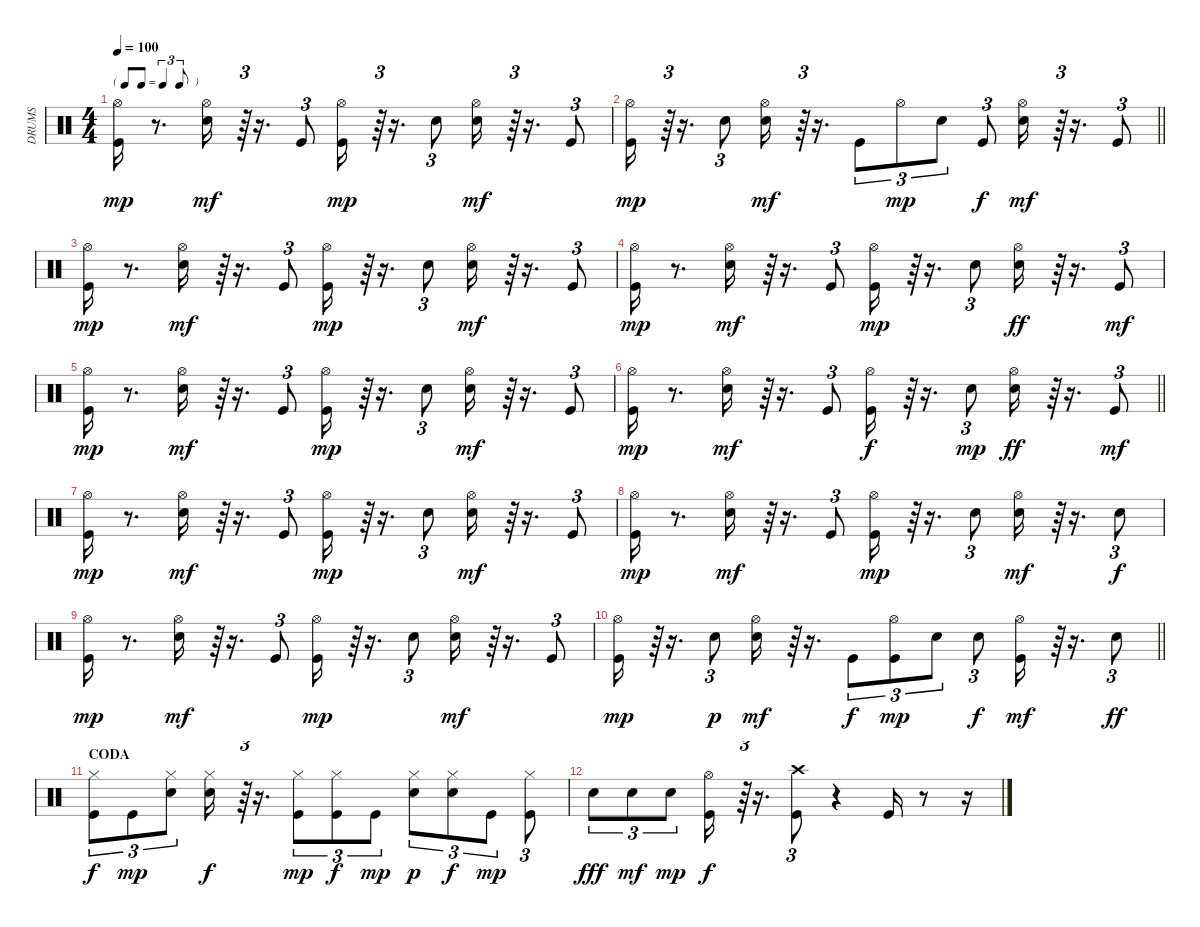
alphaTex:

\track ("DRUMS" "DRUMS") {instrument percussion}
\staff {score}
\articulation defaults
\ts (4 4)
\tf triplet8th
\tempo 100
\clef neutral
\ks c
("Kick (hit)" "Hi-Hat (open)").16{dy mp} r.8{d} ("Snare (hit) 2" "Hi-Hat (open)").16{dy mf} r.64{tu (3 2)} r.16{d} "Kick (hit)".8{tu (3 2)} ("Kick (hit)" "Hi-Hat (open)").16{dy mp} r.64{tu (3 2)} r.16{d} "Snare (hit) 2".8{tu (3 2)} ("Snare (hit) 2" "Hi-Hat (open)").16{dy mf} r.64{tu (3 2)} r.16{d} "Kick (hit)".8{tu (3 2)} |
\barLineRight lightlight
("Kick (hit)" "Hi-Hat (open)").16{dy mp} r.64{tu (3 2)} r.16{d} "Snare (hit) 2".8{tu (3 2)} ("Snare (hit) 2" "Hi-Hat (open)").16{dy mf} r.64{tu (3 2)} r.16{d} "Kick (hit)".8{tu (3 2)} "Hi-Hat (open)".8{tu (3 2) dy mp} "Snare (hit) 2".8{tu (3 2)} "Kick (hit)".8{tu (3 2) dy f} ("Snare (hit) 2" "Hi-Hat (open)").16{dy mf} r.64{tu (3 2)} r.16{d} "Kick (hit)".8{tu (3 2)} |
("Kick (hit)" "Hi-Hat (open)").16{dy mp} r.8{d} ("Snare (hit) 2" "Hi-Hat (open)").16{dy mf} r.64{tu (3 2)} r.16{d} "Kick (hit)".8{tu (3 2)} ("Kick (hit)" "Hi-Hat (open)").16{dy mp} r.64{tu (3 2)} r.16{d} "Snare (hit) 2".8{tu (3 2)} ("Snare (hit) 2" "Hi-Hat (open)").16{dy mf} r.64{tu (3 2)} r.16{d} "Kick (hit)".8{tu (3 2)} |
("Kick (hit)" "Hi-Hat (open)").16{dy mp} r.8{d} ("Snare (hit) 2" "Hi-Hat (open)").16{dy mf} r.64{tu (3 2)} r.16{d} "Kick (hit)".8{tu (3 2)} ("Kick (hit)" "Hi-Hat (open)").16{dy mp} r.64{tu (3 2)} r.16{d} "Snare (hit) 2".8{tu (3 2)} ("Snare (hit) 2" "Hi-Hat (open)").16{dy ff} r.64{tu (3 2)} r.16{d} "Kick (hit)".8{tu (3 2) dy mf} |
("Kick (hit)" "Hi-Hat (open)").16{dy mp} r.8{d} ("Snare (hit) 2" "Hi-Hat (open)").16{dy mf} r.64{tu (3 2)} r.16{d} "Kick (hit)".8{tu (3 2)} ("Kick (hit)" "Hi-Hat (open)").16{dy mp} r.64{tu (3 2)} r.16{d} "Snare (hit) 2".8{tu (3 2)} ("Snare (hit) 2" "Hi-Hat (open)").16{dy mf} r.64{tu (3 2)} r.16{d} "Kick (hit)".8{tu (3 2)} |
\barLineRight lightlight
("Kick (hit)" "Hi-Hat (open)").16{dy mp} r.8{d} ("Snare (hit) 2" "Hi-Hat (open)").16{dy mf} r.64{tu (3 2)} r.16{d} "Kick (hit)".8{tu (3 2)} ("Kick (hit)" "Hi-Hat (open)").16{dy f} r.64{tu (3 2)} r.16{d} "Snare (hit) 2".8{tu (3 2) dy mp} ("Snare (hit) 2" "Hi-Hat (open)").16{dy ff} r.64{tu (3 2)} r.16{d} "Kick (hit)".8{tu (3 2) dy mf} |
("Kick (hit)" "Hi-Hat (open)").16{dy mp} r.8{d} ("Snare (hit) 2" "Hi-Hat (open)").16{dy mf} r.64{tu (3 2)} r.16{d} "Kick (hit)".8{tu (3 2)} ("Kick (hit)" "Hi-Hat (open)").16{dy mp} r.64{tu (3 2)} r.16{d} "Snare (hit) 2".8{tu (3 2)} ("Snare (hit) 2" "Hi-Hat (open)").16{dy mf} r.64{tu (3 2)} r.16{d} "Kick (hit)".8{tu (3 2)} |
("Kick (hit)" "Hi-Hat (open)").16{dy mp} r.8{d} ("Snare (hit) 2" "Hi-Hat (open)").16{dy mf} r.64{tu (3 2)} r.16{d} "Kick (hit)".8{tu (3 2)} ("Kick (hit)" "Hi-Hat (open)").16{dy mp} r.64{tu (3 2)} r.16{d} "Snare (hit) 2".8{tu (3 2)} ("Snare (hit) 2" "Hi-Hat (open)").16{dy mf} r.64{tu (3 2)} r.16{d} "Snare (hit) 2".8{tu (3 2) dy f} |
("Kick (hit)" "Hi-Hat (open)").16{dy mp} r.8{d} ("Snare (hit) 2" "Hi-Hat (open)").16{dy mf} r.64{tu (3 2)} r.16{d} "Kick (hit)".8{tu (3 2)} ("Kick (hit)" "Hi-Hat (open)").16{dy mp} r.64{tu (3 2)} r.16{d} "Snare (hit) 2".8{tu (3 2)} ("Snare (hit) 2" "Hi-Hat (open)").16{dy mf} r.64{tu (3 2)} r.16{d} "Kick (hit)".8{tu (3 2)} |
\barLineRight lightlight
("Kick (hit)" "Hi-Hat (open)").16{dy mp} r.64{tu (3 2)} r.16{d} "Snare (hit) 2".8{tu (3 2) dy p} ("Snare (hit) 2" "Hi-Hat (open)").16{dy mf} r.64{tu (3 2)} r.16{d} "Kick (hit)".8{tu (3 2) dy f} ("Kick (hit)" "Hi-Hat (open)").8{tu (3 2) dy mp} "Snare (hit) 2".8{tu (3 2)} "Snare (hit) 2".8{tu (3 2) dy f} ("Kick (hit)" "Hi-Hat (open)").16{dy mf} r.64{tu (3 2)} r.16{d} "Snare (hit) 2".8{tu (3 2) dy ff} |
\section ("" "CODA")
("Kick (hit)" "Hi-Hat (closed)").8{tu (3 2) dy f} "Kick (hit)".8{tu (3 2) dy mp} ("Snare (hit) 2" "Hi-Hat (closed)").8{tu (3 2)} ("Snare (hit) 2" "Hi-Hat (closed)").16{dy f} r.64{tu (3 2)} r.16{d} ("Kick (hit)" "Hi-Hat (closed)").8{tu (3 2) dy mp} ("Kick (hit)" "Hi-Hat (closed)").8{tu (3 2) dy f} "Kick (hit)".8{tu (3 2) dy mp} ("Snare (hit) 2" "Hi-Hat (closed)").8{tu (3 2) dy p} ("Snare (hit) 2" "Hi-Hat (closed)").8{tu (3 2) dy f} "Kick (hit)".8{tu (3 2) dy mp} ("Kick (hit)" "Hi-Hat (closed)").8{tu (3 2)} |
"Snare (hit) 2".8{tu (3 2) dy fff} "Snare (hit) 2".8{tu (3 2) dy mf} "Snare (hit) 2".8{tu (3 2) dy mp} ("Kick (hit)" "Hi-Hat (open)").16{dy f} r.64{tu (3 2)} r.16{d} ("Kick (hit)" "Crash high (hit)").8{tu (3 2)} r.4 "Kick (hit)".16 r.8 r.16
